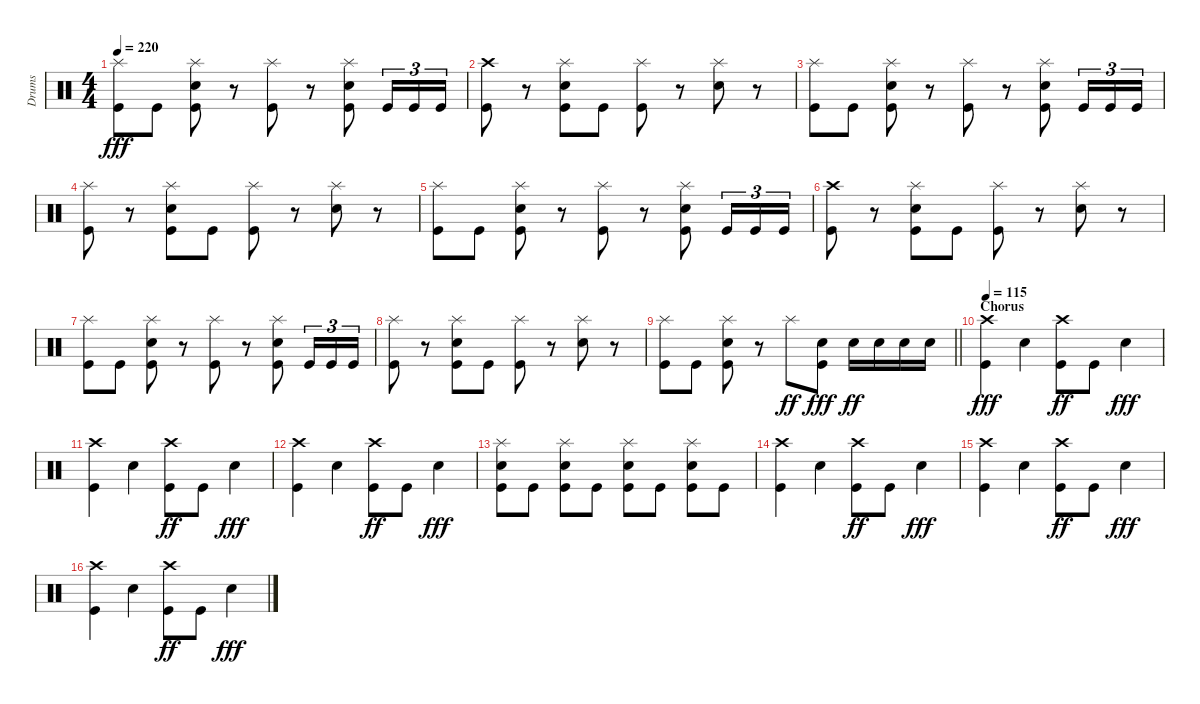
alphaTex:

\track ("Drums" "Drums") {instrument percussion}
\staff {score}
\articulation defaults
\ts (4 4)
\tempo 220
\clef neutral
\ks c
("Splash (hit)" "Kick (hit)").8{dy fff} "Kick (hit)".8 ("Splash (hit)" "Electric Snare (hit)" "Kick (hit)").8 r.8 ("Splash (hit)" "Kick (hit)").8 r.8 ("Splash (hit)" "Electric Snare (hit)" "Kick (hit)").8 "Kick (hit)".16{tu (3 2)} "Kick (hit)".16{tu (3 2)} "Kick (hit)".16{tu (3 2)} |
("Crash high (hit)" "Kick (hit)").8 r.8 ("Splash (hit)" "Electric Snare (hit)" "Kick (hit)").8 "Kick (hit)".8 ("Splash (hit)" "Kick (hit)").8 r.8 ("Splash (hit)" "Electric Snare (hit)").8 r.8 |
("Splash (hit)" "Kick (hit)").8 "Kick (hit)".8 ("Splash (hit)" "Electric Snare (hit)" "Kick (hit)").8 r.8 ("Splash (hit)" "Kick (hit)").8 r.8 ("Splash (hit)" "Electric Snare (hit)" "Kick (hit)").8 "Kick (hit)".16{tu (3 2)} "Kick (hit)".16{tu (3 2)} "Kick (hit)".16{tu (3 2)} |
("Splash (hit)" "Kick (hit)").8 r.8 ("Splash (hit)" "Electric Snare (hit)" "Kick (hit)").8 "Kick (hit)".8 ("Splash (hit)" "Kick (hit)").8 r.8 ("Splash (hit)" "Electric Snare (hit)").8 r.8 |
("Splash (hit)" "Kick (hit)").8 "Kick (hit)".8 ("Splash (hit)" "Electric Snare (hit)" "Kick (hit)").8 r.8 ("Splash (hit)" "Kick (hit)").8 r.8 ("Splash (hit)" "Electric Snare (hit)" "Kick (hit)").8 "Kick (hit)".16{tu (3 2)} "Kick (hit)".16{tu (3 2)} "Kick (hit)".16{tu (3 2)} |
("Crash high (hit)" "Kick (hit)").8 r.8 ("Splash (hit)" "Electric Snare (hit)" "Kick (hit)").8 "Kick (hit)".8 ("Splash (hit)" "Kick (hit)").8 r.8 ("Splash (hit)" "Electric Snare (hit)").8 r.8 |
("Splash (hit)" "Kick (hit)").8 "Kick (hit)".8 ("Splash (hit)" "Electric Snare (hit)" "Kick (hit)").8 r.8 ("Splash (hit)" "Kick (hit)").8 r.8 ("Splash (hit)" "Electric Snare (hit)" "Kick (hit)").8 "Kick (hit)".16{tu (3 2)} "Kick (hit)".16{tu (3 2)} "Kick (hit)".16{tu (3 2)} |
("Splash (hit)" "Kick (hit)").8 r.8 ("Splash (hit)" "Electric Snare (hit)" "Kick (hit)").8 "Kick (hit)".8 ("Splash (hit)" "Kick (hit)").8 r.8 ("Splash (hit)" "Electric Snare (hit)").8 r.8 |
\barLineRight lightlight
("Splash (hit)" "Kick (hit)").8 "Kick (hit)".8 ("Splash (hit)" "Electric Snare (hit)" "Kick (hit)").8 r.8 "Splash (hit)".8{dy ff} ("Electric Snare (hit)" "Kick (hit)").8{dy fff} "Electric Snare (hit)".16{dy ff} "Electric Snare (hit)".16 "Electric Snare (hit)".16 "Electric Snare (hit)".16 |
\section ("" "Chorus ")
\tempo 115
("Crash high (hit)" "Kick (hit)").4{dy fff} "Electric Snare (hit)".4 ("Crash high (hit)" "Kick (hit)").8{dy ff} "Kick (hit)".8 "Electric Snare (hit)".4{dy fff} |
("Crash high (hit)" "Kick (hit)").4 "Electric Snare (hit)".4 ("Crash high (hit)" "Kick (hit)").8{dy ff} "Kick (hit)".8 "Electric Snare (hit)".4{dy fff} |
("Crash high (hit)" "Kick (hit)").4 "Electric Snare (hit)".4 ("Crash high (hit)" "Kick (hit)").8{dy ff} "Kick (hit)".8 "Electric Snare (hit)".4{dy fff} |
("Splash (hit)" "Electric Snare (hit)" "Kick (hit)").8 "Kick (hit)".8 ("Splash (hit)" "Electric Snare (hit)" "Kick (hit)").8 "Kick (hit)".8 ("Splash (hit)" "Electric Snare (hit)" "Kick (hit)").8 "Kick (hit)".8 ("Splash (hit)" "Electric Snare (hit)" "Kick (hit)").8 "Kick (hit)".8 |
("Crash high (hit)" "Kick (hit)").4 "Electric Snare (hit)".4 ("Crash high (hit)" "Kick (hit)").8{dy ff} "Kick (hit)".8 "Electric Snare (hit)".4{dy fff} |
("Crash high (hit)" "Kick (hit)").4 "Electric Snare (hit)".4 ("Crash high (hit)" "Kick (hit)").8{dy ff} "Kick (hit)".8 "Electric Snare (hit)".4{dy fff} |
("Crash high (hit)" "Kick (hit)").4 "Electric Snare (hit)".4 ("Crash high (hit)" "Kick (hit)").8{dy ff} "Kick (hit)".8 "Electric Snare (hit)".4{dy fff}
